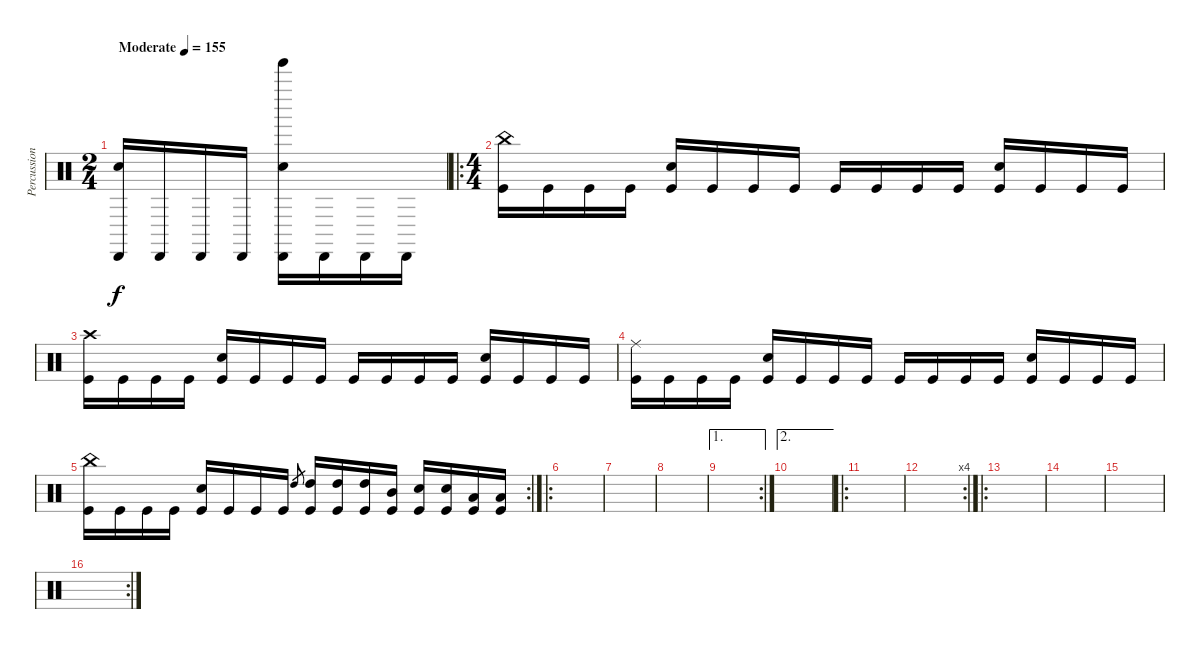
\track ("Percussion" "Percussion") {instrument percussion}
\staff {score}
\articulation defaults
\ts (2 4)
\tempo (155 "Moderate")
\clef neutral
\ks c
("Cabasa (hit)" "Snare (hit) 2").16{dy f} "Cabasa (hit)".16 "Cabasa (hit)".16 "Cabasa (hit)".16 ("Cabasa (hit)" "Tinkle Bell (hit)" "Snare (hit) 2").16 "Cabasa (hit)".16 "Cabasa (hit)".16 "Cabasa (hit)".16 |
\ro
\ts (4 4)
("China (hit)" "Kick (hit)").16 "Kick (hit)".16 "Kick (hit)".16 "Kick (hit)".16 ("Snare (hit) 2" "Kick (hit)").16 "Kick (hit)".16 "Kick (hit)".16 "Kick (hit)".16 "Kick (hit)".16 "Kick (hit)".16 "Kick (hit)".16 "Kick (hit)".16 ("Snare (hit) 2" "Kick (hit)").16 "Kick (hit)".16 "Kick (hit)".16 "Kick (hit)".16 |
("Crash high (hit)" "Kick (hit)").16 "Kick (hit)".16 "Kick (hit)".16 "Kick (hit)".16 ("Snare (hit) 2" "Kick (hit)").16 "Kick (hit)".16 "Kick (hit)".16 "Kick (hit)".16 "Kick (hit)".16 "Kick (hit)".16 "Kick (hit)".16 "Kick (hit)".16 ("Snare (hit) 2" "Kick (hit)").16 "Kick (hit)".16 "Kick (hit)".16 "Kick (hit)".16 |
("Ride (middle)" "Kick (hit)").16 "Kick (hit)".16 "Kick (hit)".16 "Kick (hit)".16 ("Snare (hit) 2" "Kick (hit)").16 "Kick (hit)".16 "Kick (hit)".16 "Kick (hit)".16 "Kick (hit)".16 "Kick (hit)".16 "Kick (hit)".16 "Kick (hit)".16 ("Snare (hit) 2" "Kick (hit)").16 "Kick (hit)".16 "Kick (hit)".16 "Kick (hit)".16 |
\rc 2
("China (hit)" "Kick (hit)").16 "Kick (hit)".16 "Kick (hit)".16 "Kick (hit)".16 ("Snare (hit) 2" "Kick (hit)").16 "Kick (hit)".16 "Kick (hit)".16 "Kick (hit)".16 "High Tom (hit)".8{gr} ("High Tom (hit)" "Kick (hit)").16 ("High Tom (hit)" "Kick (hit)").16 ("High Tom (hit)" "Kick (hit)").16 ("Mid Tom (hit)" "Kick (hit)").16 ("Snare (hit) 2" "Kick (hit)").16 ("Snare (hit) 2" "Kick (hit)").16 ("Low Tom (hit)" "Kick (hit)").16 ("Low Tom (hit)" "Kick (hit)").16 |
\ro
|
|
|
\ae 1
\rc 2
|
\ae 2
|
\ro
|
\rc 4
|
\ro
|
|
|
\rc 2
